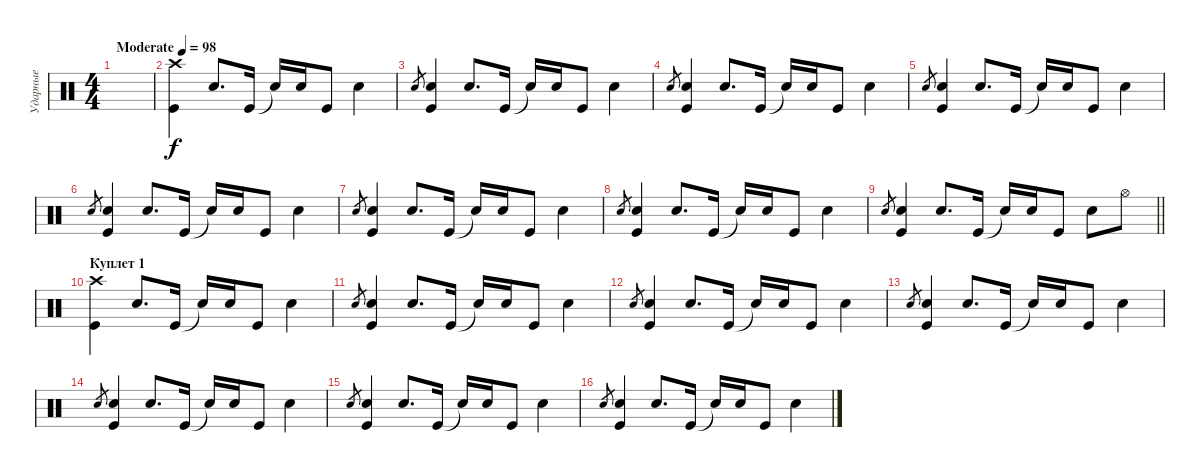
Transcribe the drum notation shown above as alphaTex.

\track ("Ударные" "Ударные") {instrument percussion}
\staff {score}
\articulation defaults
\ts (4 4)
\tempo (98 "Moderate")
\clef neutral
\ks c
|
("Crash high (hit)" "Kick (hit)").4 "Snare (hit) 2".8{d} "Kick (hit)".16 "Snare (hit)"{t}.16 "Snare (hit) 2".16 "Kick (hit)".8 "Snare (hit) 2".4 |
"Snare (hit) 2"{sl x}.8{gr} ("Snare (hit) 2" "Kick (hit)").4 "Snare (hit) 2".8{d} "Kick (hit)".16 "Snare (hit)"{t}.16 "Snare (hit) 2".16 "Kick (hit)".8 "Snare (hit) 2".4 |
"Snare (hit) 2"{sl x}.8{gr} ("Snare (hit) 2" "Kick (hit)").4 "Snare (hit) 2".8{d} "Kick (hit)".16 "Snare (hit)"{t}.16 "Snare (hit) 2".16 "Kick (hit)".8 "Snare (hit) 2".4 |
"Snare (hit) 2"{sl x}.8{gr} ("Snare (hit) 2" "Kick (hit)").4 "Snare (hit) 2".8{d} "Kick (hit)".16 "Snare (hit)"{t}.16 "Snare (hit) 2".16 "Kick (hit)".8 "Snare (hit) 2".4 |
"Snare (hit) 2"{sl x}.8{gr} ("Snare (hit) 2" "Kick (hit)").4 "Snare (hit) 2".8{d} "Kick (hit)".16 "Snare (hit)"{t}.16 "Snare (hit) 2".16 "Kick (hit)".8 "Snare (hit) 2".4 |
"Snare (hit) 2"{sl x}.8{gr} ("Snare (hit) 2" "Kick (hit)").4 "Snare (hit) 2".8{d} "Kick (hit)".16 "Snare (hit)"{t}.16 "Snare (hit) 2".16 "Kick (hit)".8 "Snare (hit) 2".4 |
"Snare (hit) 2"{sl x}.8{gr} ("Snare (hit) 2" "Kick (hit)").4 "Snare (hit) 2".8{d} "Kick (hit)".16 "Snare (hit)"{t}.16 "Snare (hit) 2".16 "Kick (hit)".8 "Snare (hit) 2".4 |
\barLineRight lightlight "Snare (hit) 2"{sl x}.8{gr}
("Snare (hit) 2" "Kick (hit)").4 "Snare (hit) 2".8{d} "Kick (hit)".16 "Snare (hit)"{t}.16 "Snare (hit) 2".16 "Kick (hit)".8 "Snare (hit) 2".8 "Hi-Hat (open)".8 |
\section ("" "Куплет 1")
("Crash high (hit)" "Kick (hit)").4 "Snare (hit) 2".8{d} "Kick (hit)".16 "Snare (hit)"{t}.16 "Snare (hit) 2".16 "Kick (hit)".8 "Snare (hit) 2".4 |
"Snare (hit) 2"{sl x}.8{gr} ("Snare (hit) 2" "Kick (hit)").4 "Snare (hit) 2".8{d} "Kick (hit)".16 "Snare (hit)"{t}.16 "Snare (hit) 2".16 "Kick (hit)".8 "Snare (hit) 2".4 |
"Snare (hit) 2"{sl x}.8{gr} ("Snare (hit) 2" "Kick (hit)").4 "Snare (hit) 2".8{d} "Kick (hit)".16 "Snare (hit)"{t}.16 "Snare (hit) 2".16 "Kick (hit)".8 "Snare (hit) 2".4 |
"Snare (hit) 2"{sl x}.8{gr} ("Snare (hit) 2" "Kick (hit)").4 "Snare (hit) 2".8{d} "Kick (hit)".16 "Snare (hit)"{t}.16 "Snare (hit) 2".16 "Kick (hit)".8 "Snare (hit) 2".4 |
"Snare (hit) 2"{sl x}.8{gr} ("Snare (hit) 2" "Kick (hit)").4 "Snare (hit) 2".8{d} "Kick (hit)".16 "Snare (hit)"{t}.16 "Snare (hit) 2".16 "Kick (hit)".8 "Snare (hit) 2".4 |
"Snare (hit) 2"{sl x}.8{gr} ("Snare (hit) 2" "Kick (hit)").4 "Snare (hit) 2".8{d} "Kick (hit)".16 "Snare (hit)"{t}.16 "Snare (hit) 2".16 "Kick (hit)".8 "Snare (hit) 2".4 |
"Snare (hit) 2"{sl x}.8{gr} ("Snare (hit) 2" "Kick (hit)").4 "Snare (hit) 2".8{d} "Kick (hit)".16 "Snare (hit)"{t}.16 "Snare (hit) 2".16 "Kick (hit)".8 "Snare (hit) 2".4
